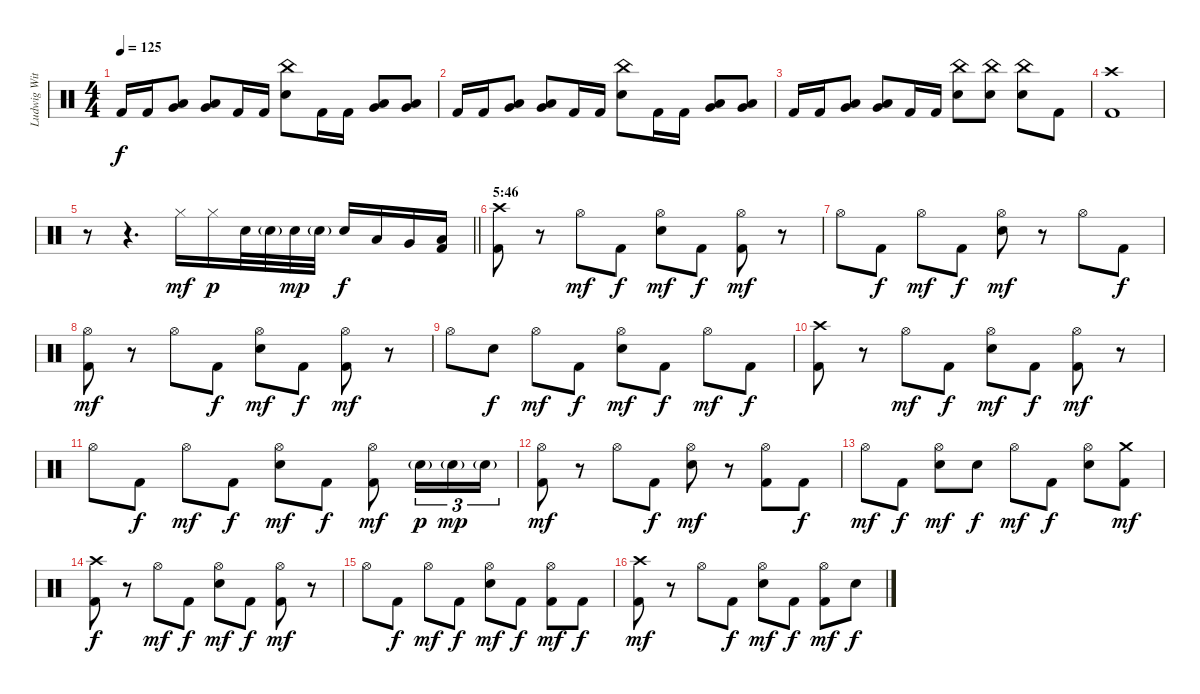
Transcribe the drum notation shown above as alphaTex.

\track ("Ludwig Witt" "Ludwig Wit") {instrument percussion}
\staff {score}
\articulation defaults
\ts (4 4)
\tempo 125
\clef neutral
\ks c "Kick (hit) 2".16{dy f} "Kick (hit) 2".16
("Low Tom (hit)" "Very Low Tom (hit)").8 ("Very Low Tom (hit)" "Low Floor Tom (hit)").8 "Kick (hit) 2".16 "Kick (hit) 2".16 ("China (hit)" "Electric Snare (hit)").8 "Kick (hit) 2".16 "Kick (hit) 2".16 ("Low Tom (hit)" "Very Low Tom (hit)").8 ("Very Low Tom (hit)" "Low Floor Tom (hit)").8 |
"Kick (hit) 2".16 "Kick (hit) 2".16 ("Low Tom (hit)" "Very Low Tom (hit)").8 ("Very Low Tom (hit)" "Low Floor Tom (hit)").8 "Kick (hit) 2".16 "Kick (hit) 2".16 ("China (hit)" "Electric Snare (hit)").8 "Kick (hit) 2".16 "Kick (hit) 2".16 ("Low Tom (hit)" "Very Low Tom (hit)").8 ("Very Low Tom (hit)" "Low Floor Tom (hit)").8 |
"Kick (hit) 2".16 "Kick (hit) 2".16 ("Low Tom (hit)" "Very Low Tom (hit)").8 ("Very Low Tom (hit)" "Low Floor Tom (hit)").8 "Kick (hit) 2".16 "Kick (hit) 2".16 ("China (hit)" "Electric Snare (hit)").8 ("China (hit)" "Electric Snare (hit)").8 ("China (hit)" "Electric Snare (hit)").8 "Kick (hit) 2".8 |
("Crash high (hit)" "Kick (hit) 2").1 |
\barLineRight lightlight
r.8 r.4{d} "Hi-Hat (closed)".16{dy mf} "Hi-Hat (closed)".16{dy p} "Electric Snare (hit)".32 "Electric Snare (hit)"{g}.32 "Electric Snare (hit)".32{dy mp} "Electric Snare (hit)"{g}.32 "Electric Snare (hit)".16{dy f} "Low Tom (hit)".16 "Very Low Tom (hit)".16 ("Low Floor Tom (hit)" "Kick (hit) 2").16 |
\section ("" "5:46")
("Crash high (hit)" "Kick (hit) 2").8 r.8 "Hi-Hat (open)".8{dy mf} "Kick (hit) 2".8{dy f} ("Hi-Hat (open)" "Electric Snare (hit)").8{dy mf} "Kick (hit) 2".8{dy f} ("Hi-Hat (open)" "Kick (hit) 2").8{dy mf} r.8 |
"Hi-Hat (open)".8 "Kick (hit) 2".8{dy f} "Hi-Hat (open)".8{dy mf} "Kick (hit) 2".8{dy f} ("Hi-Hat (open)" "Electric Snare (hit)").8{dy mf} r.8 "Hi-Hat (open)".8 "Kick (hit) 2".8{dy f} |
("Hi-Hat (open)" "Kick (hit) 2").8{dy mf} r.8 "Hi-Hat (open)".8 "Kick (hit) 2".8{dy f} ("Hi-Hat (open)" "Electric Snare (hit)").8{dy mf} "Kick (hit) 2".8{dy f} ("Hi-Hat (open)" "Kick (hit) 2").8{dy mf} r.8 |
"Hi-Hat (open)".8 "Electric Snare (hit)".8{dy f} "Hi-Hat (open)".8{dy mf} "Kick (hit) 2".8{dy f} ("Hi-Hat (open)" "Electric Snare (hit)").8{dy mf} "Kick (hit) 2".8{dy f} "Hi-Hat (open)".8{dy mf} "Kick (hit) 2".8{dy f} |
("Crash high (hit)" "Kick (hit) 2").8 r.8 "Hi-Hat (open)".8{dy mf} "Kick (hit) 2".8{dy f} ("Hi-Hat (open)" "Electric Snare (hit)").8{dy mf} "Kick (hit) 2".8{dy f} ("Hi-Hat (open)" "Kick (hit) 2").8{dy mf} r.8 |
"Hi-Hat (open)".8 "Kick (hit) 2".8{dy f} "Hi-Hat (open)".8{dy mf} "Kick (hit) 2".8{dy f} ("Hi-Hat (open)" "Electric Snare (hit)").8{dy mf} "Kick (hit) 2".8{dy f} ("Hi-Hat (open)" "Kick (hit) 2").8{dy mf} "Electric Snare (hit)"{g}.16{tu (3 2) dy p} "Electric Snare (hit)"{g}.16{tu (3 2) dy mp} "Electric Snare (hit)"{g}.16{tu (3 2)} |
("Hi-Hat (open)" "Kick (hit) 2").8{dy mf} r.8 "Hi-Hat (open)".8 "Kick (hit) 2".8{dy f} ("Hi-Hat (open)" "Electric Snare (hit)").8{dy mf} r.8 ("Hi-Hat (open)" "Kick (hit) 2").8 "Kick (hit) 2".8{dy f} |
"Hi-Hat (open)".8{dy mf} "Kick (hit) 2".8{dy f} ("Hi-Hat (open)" "Electric Snare (hit)").8{dy mf} "Electric Snare (hit)".8{dy f} "Hi-Hat (open)".8{dy mf} "Kick (hit) 2".8{dy f} ("Hi-Hat (open)" "Electric Snare (hit)").8 ("Crash medium (hit)" "Kick (hit) 2").8{dy mf} |
("Crash high (hit)" "Kick (hit) 2").8{dy f} r.8 "Hi-Hat (open)".8{dy mf} "Kick (hit) 2".8{dy f} ("Hi-Hat (open)" "Electric Snare (hit)").8{dy mf} "Kick (hit) 2".8{dy f} ("Hi-Hat (open)" "Kick (hit) 2").8{dy mf} r.8 |
"Hi-Hat (open)".8 "Kick (hit) 2".8{dy f} "Hi-Hat (open)".8{dy mf} "Kick (hit) 2".8{dy f} ("Hi-Hat (open)" "Electric Snare (hit)").8{dy mf} "Kick (hit) 2".8{dy f} ("Hi-Hat (open)" "Kick (hit) 2").8{dy mf} "Kick (hit) 2".8{dy f} |
("Crash high (hit)" "Kick (hit) 2").8{dy mf} r.8 "Hi-Hat (open)".8 "Kick (hit) 2".8{dy f} ("Hi-Hat (open)" "Electric Snare (hit)").8{dy mf} "Kick (hit) 2".8{dy f} ("Hi-Hat (open)" "Kick (hit) 2").8{dy mf} "Electric Snare (hit)".8{dy f}
